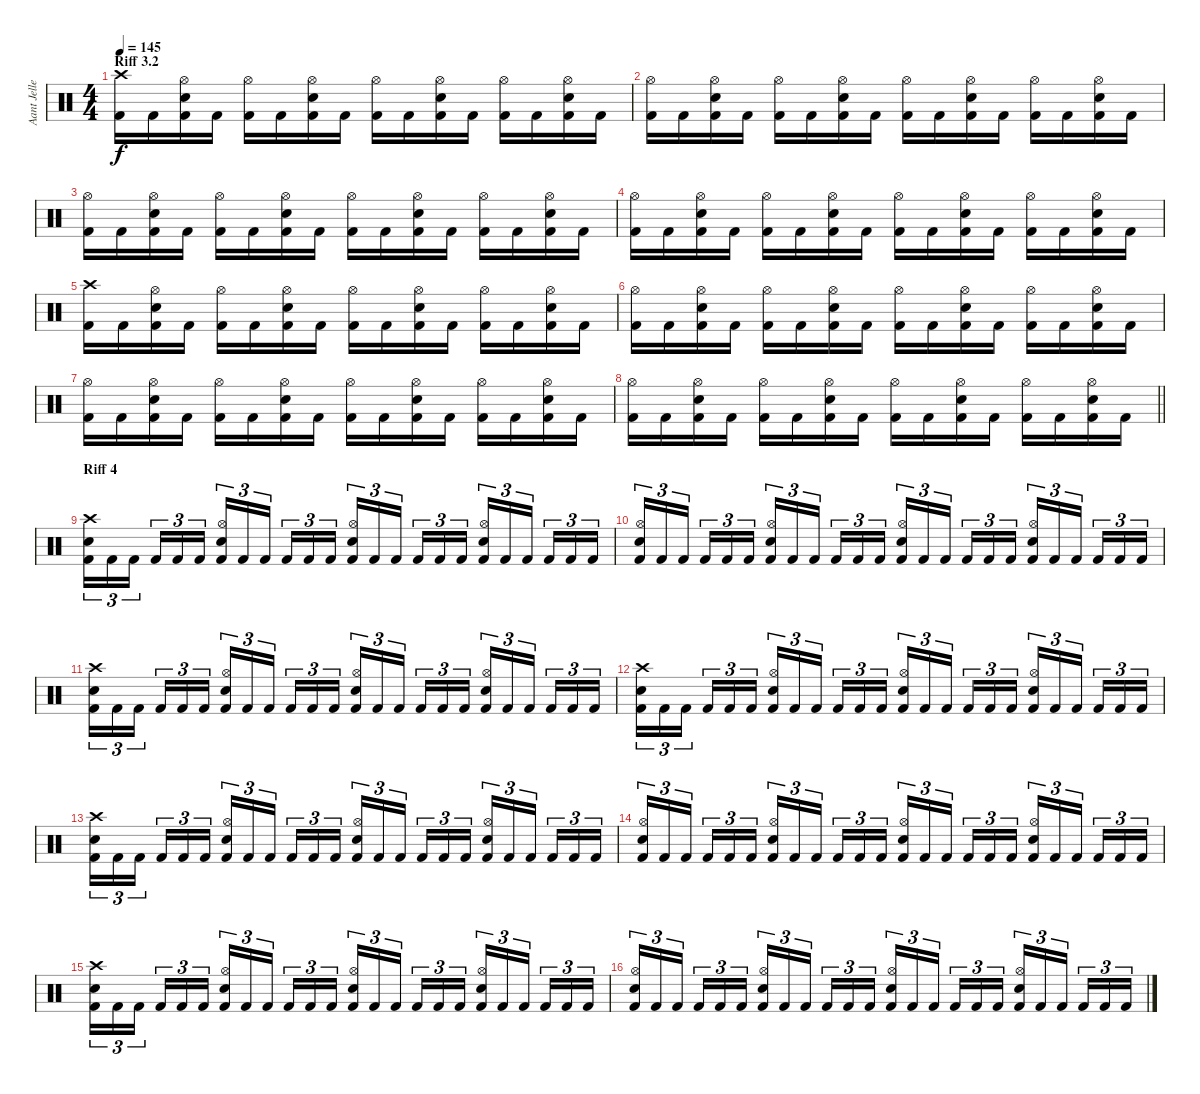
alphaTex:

\track ("Aant Jelle" "Aant Jelle") {instrument percussion}
\staff {score}
\articulation defaults
\ts (4 4)
\section ("" "Riff 3.2")
\tempo 145
\clef neutral
\ks c
("Crash high (hit)" "Kick (hit) 2").16{dy f} "Kick (hit) 2".16 ("Hi-Hat (open)" "Electric Snare (hit)" "Kick (hit) 2").16 "Kick (hit) 2".16 ("Hi-Hat (open)" "Kick (hit) 2").16 "Kick (hit) 2".16 ("Hi-Hat (open)" "Electric Snare (hit)" "Kick (hit) 2").16 "Kick (hit) 2".16 ("Hi-Hat (open)" "Kick (hit) 2").16 "Kick (hit) 2".16 ("Hi-Hat (open)" "Electric Snare (hit)" "Kick (hit) 2").16 "Kick (hit) 2".16 ("Hi-Hat (open)" "Kick (hit) 2").16 "Kick (hit) 2".16 ("Hi-Hat (open)" "Electric Snare (hit)" "Kick (hit) 2").16 "Kick (hit) 2".16 |
("Hi-Hat (open)" "Kick (hit) 2").16 "Kick (hit) 2".16 ("Hi-Hat (open)" "Electric Snare (hit)" "Kick (hit) 2").16 "Kick (hit) 2".16 ("Hi-Hat (open)" "Kick (hit) 2").16 "Kick (hit) 2".16 ("Hi-Hat (open)" "Electric Snare (hit)" "Kick (hit) 2").16 "Kick (hit) 2".16 ("Hi-Hat (open)" "Kick (hit) 2").16 "Kick (hit) 2".16 ("Hi-Hat (open)" "Electric Snare (hit)" "Kick (hit) 2").16 "Kick (hit) 2".16 ("Hi-Hat (open)" "Kick (hit) 2").16 "Kick (hit) 2".16 ("Hi-Hat (open)" "Electric Snare (hit)" "Kick (hit) 2").16 "Kick (hit) 2".16 |
("Hi-Hat (open)" "Kick (hit) 2").16 "Kick (hit) 2".16 ("Hi-Hat (open)" "Electric Snare (hit)" "Kick (hit) 2").16 "Kick (hit) 2".16 ("Hi-Hat (open)" "Kick (hit) 2").16 "Kick (hit) 2".16 ("Hi-Hat (open)" "Electric Snare (hit)" "Kick (hit) 2").16 "Kick (hit) 2".16 ("Hi-Hat (open)" "Kick (hit) 2").16 "Kick (hit) 2".16 ("Hi-Hat (open)" "Electric Snare (hit)" "Kick (hit) 2").16 "Kick (hit) 2".16 ("Hi-Hat (open)" "Kick (hit) 2").16 "Kick (hit) 2".16 ("Hi-Hat (open)" "Electric Snare (hit)" "Kick (hit) 2").16 "Kick (hit) 2".16 |
("Hi-Hat (open)" "Kick (hit) 2").16 "Kick (hit) 2".16 ("Hi-Hat (open)" "Electric Snare (hit)" "Kick (hit) 2").16 "Kick (hit) 2".16 ("Hi-Hat (open)" "Kick (hit) 2").16 "Kick (hit) 2".16 ("Hi-Hat (open)" "Electric Snare (hit)" "Kick (hit) 2").16 "Kick (hit) 2".16 ("Hi-Hat (open)" "Kick (hit) 2").16 "Kick (hit) 2".16 ("Hi-Hat (open)" "Electric Snare (hit)" "Kick (hit) 2").16 "Kick (hit) 2".16 ("Hi-Hat (open)" "Kick (hit) 2").16 "Kick (hit) 2".16 ("Hi-Hat (open)" "Electric Snare (hit)" "Kick (hit) 2").16 "Kick (hit) 2".16 |
("Crash high (hit)" "Kick (hit) 2").16 "Kick (hit) 2".16 ("Hi-Hat (open)" "Electric Snare (hit)" "Kick (hit) 2").16 "Kick (hit) 2".16 ("Hi-Hat (open)" "Kick (hit) 2").16 "Kick (hit) 2".16 ("Hi-Hat (open)" "Electric Snare (hit)" "Kick (hit) 2").16 "Kick (hit) 2".16 ("Hi-Hat (open)" "Kick (hit) 2").16 "Kick (hit) 2".16 ("Hi-Hat (open)" "Electric Snare (hit)" "Kick (hit) 2").16 "Kick (hit) 2".16 ("Hi-Hat (open)" "Kick (hit) 2").16 "Kick (hit) 2".16 ("Hi-Hat (open)" "Electric Snare (hit)" "Kick (hit) 2").16 "Kick (hit) 2".16 |
("Hi-Hat (open)" "Kick (hit) 2").16 "Kick (hit) 2".16 ("Hi-Hat (open)" "Electric Snare (hit)" "Kick (hit) 2").16 "Kick (hit) 2".16 ("Hi-Hat (open)" "Kick (hit) 2").16 "Kick (hit) 2".16 ("Hi-Hat (open)" "Electric Snare (hit)" "Kick (hit) 2").16 "Kick (hit) 2".16 ("Hi-Hat (open)" "Kick (hit) 2").16 "Kick (hit) 2".16 ("Hi-Hat (open)" "Electric Snare (hit)" "Kick (hit) 2").16 "Kick (hit) 2".16 ("Hi-Hat (open)" "Kick (hit) 2").16 "Kick (hit) 2".16 ("Hi-Hat (open)" "Electric Snare (hit)" "Kick (hit) 2").16 "Kick (hit) 2".16 |
("Hi-Hat (open)" "Kick (hit) 2").16 "Kick (hit) 2".16 ("Hi-Hat (open)" "Electric Snare (hit)" "Kick (hit) 2").16 "Kick (hit) 2".16 ("Hi-Hat (open)" "Kick (hit) 2").16 "Kick (hit) 2".16 ("Hi-Hat (open)" "Electric Snare (hit)" "Kick (hit) 2").16 "Kick (hit) 2".16 ("Hi-Hat (open)" "Kick (hit) 2").16 "Kick (hit) 2".16 ("Hi-Hat (open)" "Electric Snare (hit)" "Kick (hit) 2").16 "Kick (hit) 2".16 ("Hi-Hat (open)" "Kick (hit) 2").16 "Kick (hit) 2".16 ("Hi-Hat (open)" "Electric Snare (hit)" "Kick (hit) 2").16 "Kick (hit) 2".16 |
\barLineRight lightlight
("Hi-Hat (open)" "Kick (hit) 2").16 "Kick (hit) 2".16 ("Hi-Hat (open)" "Electric Snare (hit)" "Kick (hit) 2").16 "Kick (hit) 2".16 ("Hi-Hat (open)" "Kick (hit) 2").16 "Kick (hit) 2".16 ("Hi-Hat (open)" "Electric Snare (hit)" "Kick (hit) 2").16 "Kick (hit) 2".16 ("Hi-Hat (open)" "Kick (hit) 2").16 "Kick (hit) 2".16 ("Hi-Hat (open)" "Electric Snare (hit)" "Kick (hit) 2").16 "Kick (hit) 2".16 ("Hi-Hat (open)" "Kick (hit) 2").16 "Kick (hit) 2".16 ("Hi-Hat (open)" "Electric Snare (hit)" "Kick (hit) 2").16 "Kick (hit) 2".16 |
\section ("" "Riff 4")
("Crash high (hit)" "Electric Snare (hit)" "Kick (hit) 2").16{tu (3 2)} "Kick (hit) 2".16{tu (3 2)} "Kick (hit) 2".16{tu (3 2) beam splitsecondary} "Kick (hit) 2".16{tu (3 2)} "Kick (hit) 2".16{tu (3 2)} "Kick (hit) 2".16{tu (3 2)} ("Hi-Hat (open)" "Electric Snare (hit)" "Kick (hit) 2").16{tu (3 2)} "Kick (hit) 2".16{tu (3 2)} "Kick (hit) 2".16{tu (3 2) beam splitsecondary} "Kick (hit) 2".16{tu (3 2)} "Kick (hit) 2".16{tu (3 2)} "Kick (hit) 2".16{tu (3 2)} ("Hi-Hat (open)" "Electric Snare (hit)" "Kick (hit) 2").16{tu (3 2)} "Kick (hit) 2".16{tu (3 2)} "Kick (hit) 2".16{tu (3 2) beam splitsecondary} "Kick (hit) 2".16{tu (3 2)} "Kick (hit) 2".16{tu (3 2)} "Kick (hit) 2".16{tu (3 2)} ("Hi-Hat (open)" "Electric Snare (hit)" "Kick (hit) 2").16{tu (3 2)} "Kick (hit) 2".16{tu (3 2)} "Kick (hit) 2".16{tu (3 2) beam splitsecondary} "Kick (hit) 2".16{tu (3 2)} "Kick (hit) 2".16{tu (3 2)} "Kick (hit) 2".16{tu (3 2)} |
("Hi-Hat (open)" "Electric Snare (hit)" "Kick (hit) 2").16{tu (3 2)} "Kick (hit) 2".16{tu (3 2)} "Kick (hit) 2".16{tu (3 2) beam splitsecondary} "Kick (hit) 2".16{tu (3 2)} "Kick (hit) 2".16{tu (3 2)} "Kick (hit) 2".16{tu (3 2)} ("Hi-Hat (open)" "Electric Snare (hit)" "Kick (hit) 2").16{tu (3 2)} "Kick (hit) 2".16{tu (3 2)} "Kick (hit) 2".16{tu (3 2) beam splitsecondary} "Kick (hit) 2".16{tu (3 2)} "Kick (hit) 2".16{tu (3 2)} "Kick (hit) 2".16{tu (3 2)} ("Hi-Hat (open)" "Electric Snare (hit)" "Kick (hit) 2").16{tu (3 2)} "Kick (hit) 2".16{tu (3 2)} "Kick (hit) 2".16{tu (3 2) beam splitsecondary} "Kick (hit) 2".16{tu (3 2)} "Kick (hit) 2".16{tu (3 2)} "Kick (hit) 2".16{tu (3 2)} ("Hi-Hat (open)" "Electric Snare (hit)" "Kick (hit) 2").16{tu (3 2)} "Kick (hit) 2".16{tu (3 2)} "Kick (hit) 2".16{tu (3 2) beam splitsecondary} "Kick (hit) 2".16{tu (3 2)} "Kick (hit) 2".16{tu (3 2)} "Kick (hit) 2".16{tu (3 2)} |
("Crash high (hit)" "Electric Snare (hit)" "Kick (hit) 2").16{tu (3 2)} "Kick (hit) 2".16{tu (3 2)} "Kick (hit) 2".16{tu (3 2) beam splitsecondary} "Kick (hit) 2".16{tu (3 2)} "Kick (hit) 2".16{tu (3 2)} "Kick (hit) 2".16{tu (3 2)} ("Hi-Hat (open)" "Electric Snare (hit)" "Kick (hit) 2").16{tu (3 2)} "Kick (hit) 2".16{tu (3 2)} "Kick (hit) 2".16{tu (3 2) beam splitsecondary} "Kick (hit) 2".16{tu (3 2)} "Kick (hit) 2".16{tu (3 2)} "Kick (hit) 2".16{tu (3 2)} ("Hi-Hat (open)" "Electric Snare (hit)" "Kick (hit) 2").16{tu (3 2)} "Kick (hit) 2".16{tu (3 2)} "Kick (hit) 2".16{tu (3 2) beam splitsecondary} "Kick (hit) 2".16{tu (3 2)} "Kick (hit) 2".16{tu (3 2)} "Kick (hit) 2".16{tu (3 2)} ("Hi-Hat (open)" "Electric Snare (hit)" "Kick (hit) 2").16{tu (3 2)} "Kick (hit) 2".16{tu (3 2)} "Kick (hit) 2".16{tu (3 2) beam splitsecondary} "Kick (hit) 2".16{tu (3 2)} "Kick (hit) 2".16{tu (3 2)} "Kick (hit) 2".16{tu (3 2)} |
("Crash high (hit)" "Electric Snare (hit)" "Kick (hit) 2").16{tu (3 2)} "Kick (hit) 2".16{tu (3 2)} "Kick (hit) 2".16{tu (3 2) beam splitsecondary} "Kick (hit) 2".16{tu (3 2)} "Kick (hit) 2".16{tu (3 2)} "Kick (hit) 2".16{tu (3 2)} ("Hi-Hat (open)" "Electric Snare (hit)" "Kick (hit) 2").16{tu (3 2)} "Kick (hit) 2".16{tu (3 2)} "Kick (hit) 2".16{tu (3 2) beam splitsecondary} "Kick (hit) 2".16{tu (3 2)} "Kick (hit) 2".16{tu (3 2)} "Kick (hit) 2".16{tu (3 2)} ("Hi-Hat (open)" "Electric Snare (hit)" "Kick (hit) 2").16{tu (3 2)} "Kick (hit) 2".16{tu (3 2)} "Kick (hit) 2".16{tu (3 2) beam splitsecondary} "Kick (hit) 2".16{tu (3 2)} "Kick (hit) 2".16{tu (3 2)} "Kick (hit) 2".16{tu (3 2)} ("Hi-Hat (open)" "Electric Snare (hit)" "Kick (hit) 2").16{tu (3 2)} "Kick (hit) 2".16{tu (3 2)} "Kick (hit) 2".16{tu (3 2) beam splitsecondary} "Kick (hit) 2".16{tu (3 2)} "Kick (hit) 2".16{tu (3 2)} "Kick (hit) 2".16{tu (3 2)} |
("Crash high (hit)" "Electric Snare (hit)" "Kick (hit) 2").16{tu (3 2)} "Kick (hit) 2".16{tu (3 2)} "Kick (hit) 2".16{tu (3 2) beam splitsecondary} "Kick (hit) 2".16{tu (3 2)} "Kick (hit) 2".16{tu (3 2)} "Kick (hit) 2".16{tu (3 2)} ("Hi-Hat (open)" "Electric Snare (hit)" "Kick (hit) 2").16{tu (3 2)} "Kick (hit) 2".16{tu (3 2)} "Kick (hit) 2".16{tu (3 2) beam splitsecondary} "Kick (hit) 2".16{tu (3 2)} "Kick (hit) 2".16{tu (3 2)} "Kick (hit) 2".16{tu (3 2)} ("Hi-Hat (open)" "Electric Snare (hit)" "Kick (hit) 2").16{tu (3 2)} "Kick (hit) 2".16{tu (3 2)} "Kick (hit) 2".16{tu (3 2) beam splitsecondary} "Kick (hit) 2".16{tu (3 2)} "Kick (hit) 2".16{tu (3 2)} "Kick (hit) 2".16{tu (3 2)} ("Hi-Hat (open)" "Electric Snare (hit)" "Kick (hit) 2").16{tu (3 2)} "Kick (hit) 2".16{tu (3 2)} "Kick (hit) 2".16{tu (3 2) beam splitsecondary} "Kick (hit) 2".16{tu (3 2)} "Kick (hit) 2".16{tu (3 2)} "Kick (hit) 2".16{tu (3 2)} |
("Hi-Hat (open)" "Electric Snare (hit)" "Kick (hit) 2").16{tu (3 2)} "Kick (hit) 2".16{tu (3 2)} "Kick (hit) 2".16{tu (3 2) beam splitsecondary} "Kick (hit) 2".16{tu (3 2)} "Kick (hit) 2".16{tu (3 2)} "Kick (hit) 2".16{tu (3 2)} ("Hi-Hat (open)" "Electric Snare (hit)" "Kick (hit) 2").16{tu (3 2)} "Kick (hit) 2".16{tu (3 2)} "Kick (hit) 2".16{tu (3 2) beam splitsecondary} "Kick (hit) 2".16{tu (3 2)} "Kick (hit) 2".16{tu (3 2)} "Kick (hit) 2".16{tu (3 2)} ("Hi-Hat (open)" "Electric Snare (hit)" "Kick (hit) 2").16{tu (3 2)} "Kick (hit) 2".16{tu (3 2)} "Kick (hit) 2".16{tu (3 2) beam splitsecondary} "Kick (hit) 2".16{tu (3 2)} "Kick (hit) 2".16{tu (3 2)} "Kick (hit) 2".16{tu (3 2)} ("Hi-Hat (open)" "Electric Snare (hit)" "Kick (hit) 2").16{tu (3 2)} "Kick (hit) 2".16{tu (3 2)} "Kick (hit) 2".16{tu (3 2) beam splitsecondary} "Kick (hit) 2".16{tu (3 2)} "Kick (hit) 2".16{tu (3 2)} "Kick (hit) 2".16{tu (3 2)} |
("Crash high (hit)" "Electric Snare (hit)" "Kick (hit) 2").16{tu (3 2)} "Kick (hit) 2".16{tu (3 2)} "Kick (hit) 2".16{tu (3 2) beam splitsecondary} "Kick (hit) 2".16{tu (3 2)} "Kick (hit) 2".16{tu (3 2)} "Kick (hit) 2".16{tu (3 2)} ("Hi-Hat (open)" "Electric Snare (hit)" "Kick (hit) 2").16{tu (3 2)} "Kick (hit) 2".16{tu (3 2)} "Kick (hit) 2".16{tu (3 2) beam splitsecondary} "Kick (hit) 2".16{tu (3 2)} "Kick (hit) 2".16{tu (3 2)} "Kick (hit) 2".16{tu (3 2)} ("Hi-Hat (open)" "Electric Snare (hit)" "Kick (hit) 2").16{tu (3 2)} "Kick (hit) 2".16{tu (3 2)} "Kick (hit) 2".16{tu (3 2) beam splitsecondary} "Kick (hit) 2".16{tu (3 2)} "Kick (hit) 2".16{tu (3 2)} "Kick (hit) 2".16{tu (3 2)} ("Hi-Hat (open)" "Electric Snare (hit)" "Kick (hit) 2").16{tu (3 2)} "Kick (hit) 2".16{tu (3 2)} "Kick (hit) 2".16{tu (3 2) beam splitsecondary} "Kick (hit) 2".16{tu (3 2)} "Kick (hit) 2".16{tu (3 2)} "Kick (hit) 2".16{tu (3 2)} |
("Hi-Hat (open)" "Electric Snare (hit)" "Kick (hit) 2").16{tu (3 2)} "Kick (hit) 2".16{tu (3 2)} "Kick (hit) 2".16{tu (3 2) beam splitsecondary} "Kick (hit) 2".16{tu (3 2)} "Kick (hit) 2".16{tu (3 2)} "Kick (hit) 2".16{tu (3 2)} ("Hi-Hat (open)" "Electric Snare (hit)" "Kick (hit) 2").16{tu (3 2)} "Kick (hit) 2".16{tu (3 2)} "Kick (hit) 2".16{tu (3 2) beam splitsecondary} "Kick (hit) 2".16{tu (3 2)} "Kick (hit) 2".16{tu (3 2)} "Kick (hit) 2".16{tu (3 2)} ("Hi-Hat (open)" "Electric Snare (hit)" "Kick (hit) 2").16{tu (3 2)} "Kick (hit) 2".16{tu (3 2)} "Kick (hit) 2".16{tu (3 2) beam splitsecondary} "Kick (hit) 2".16{tu (3 2)} "Kick (hit) 2".16{tu (3 2)} "Kick (hit) 2".16{tu (3 2)} ("Hi-Hat (open)" "Electric Snare (hit)" "Kick (hit) 2").16{tu (3 2)} "Kick (hit) 2".16{tu (3 2)} "Kick (hit) 2".16{tu (3 2) beam splitsecondary} "Kick (hit) 2".16{tu (3 2)} "Kick (hit) 2".16{tu (3 2)} "Kick (hit) 2".16{tu (3 2)}
